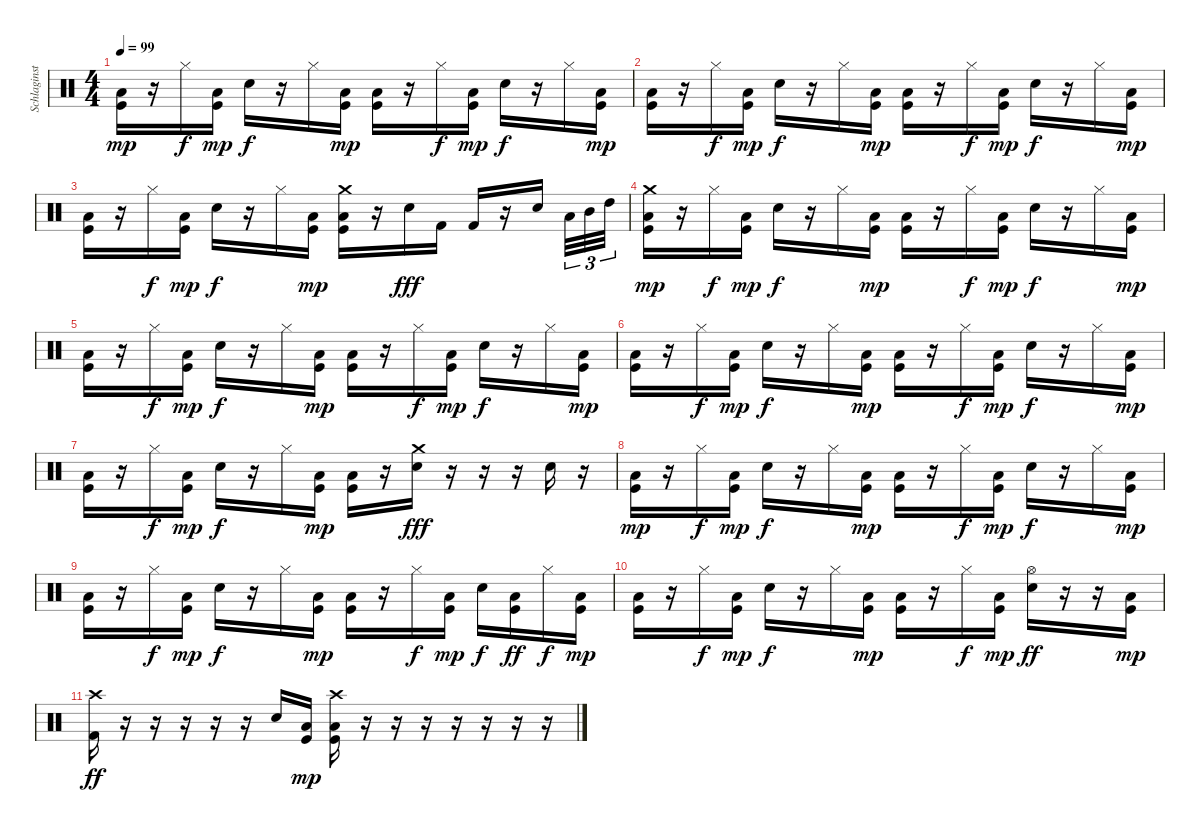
\track ("Schlaginstrumente - Auswahl" "Schlaginst") {instrument percussion}
\staff {score}
\articulation defaults
\ts (4 4)
\tempo 99
\clef neutral
\ks c
("Low Floor Tom (hit)" "Kick (hit)").16{dy mp} r.16 "Hi-Hat (closed)".16{dy f} ("Low Floor Tom (hit)" "Kick (hit)").16{dy mp} "Snare (hit) 2".16{dy f} r.16 "Hi-Hat (closed)".16 ("Low Floor Tom (hit)" "Kick (hit)").16{dy mp} ("Low Floor Tom (hit)" "Kick (hit)").16 r.16 "Hi-Hat (closed)".16{dy f} ("Low Floor Tom (hit)" "Kick (hit)").16{dy mp} "Snare (hit) 2".16{dy f} r.16 "Hi-Hat (closed)".16 ("Low Floor Tom (hit)" "Kick (hit)").16{dy mp} |
("Low Floor Tom (hit)" "Kick (hit)").16 r.16 "Hi-Hat (closed)".16{dy f} ("Low Floor Tom (hit)" "Kick (hit)").16{dy mp} "Snare (hit) 2".16{dy f} r.16 "Hi-Hat (closed)".16 ("Low Floor Tom (hit)" "Kick (hit)").16{dy mp} ("Low Floor Tom (hit)" "Kick (hit)").16 r.16 "Hi-Hat (closed)".16{dy f} ("Low Floor Tom (hit)" "Kick (hit)").16{dy mp} "Snare (hit) 2".16{dy f} r.16 "Hi-Hat (closed)".16 ("Low Floor Tom (hit)" "Kick (hit)").16{dy mp} |
("Low Floor Tom (hit)" "Kick (hit)").16 r.16 "Hi-Hat (closed)".16{dy f} ("Low Floor Tom (hit)" "Kick (hit)").16{dy mp} "Snare (hit) 2".16{dy f} r.16 "Hi-Hat (closed)".16 ("Low Floor Tom (hit)" "Kick (hit)").16{dy mp} ("Crash medium (hit)" "Low Floor Tom (hit)" "Kick (hit)").16 r.16 "Snare (hit) 2".16{dy fff} "Kick (hit) 2".16 "Kick (hit) 2".16 r.16 "Snare (hit) 2".16{beam splitsecondary} "Low Tom (hit)".32{tu (3 2)} "Mid Tom (hit)".32{tu (3 2)} "High Tom (hit)".32{tu (3 2)} |
("Crash medium (hit)" "Low Floor Tom (hit)" "Kick (hit)").16{dy mp} r.16 "Hi-Hat (closed)".16{dy f} ("Low Floor Tom (hit)" "Kick (hit)").16{dy mp} "Snare (hit) 2".16{dy f} r.16 "Hi-Hat (closed)".16 ("Low Floor Tom (hit)" "Kick (hit)").16{dy mp} ("Low Floor Tom (hit)" "Kick (hit)").16 r.16 "Hi-Hat (closed)".16{dy f} ("Low Floor Tom (hit)" "Kick (hit)").16{dy mp} "Snare (hit) 2".16{dy f} r.16 "Hi-Hat (closed)".16 ("Low Floor Tom (hit)" "Kick (hit)").16{dy mp} |
("Low Floor Tom (hit)" "Kick (hit)").16 r.16 "Hi-Hat (closed)".16{dy f} ("Low Floor Tom (hit)" "Kick (hit)").16{dy mp} "Snare (hit) 2".16{dy f} r.16 "Hi-Hat (closed)".16 ("Low Floor Tom (hit)" "Kick (hit)").16{dy mp} ("Low Floor Tom (hit)" "Kick (hit)").16 r.16 "Hi-Hat (closed)".16{dy f} ("Low Floor Tom (hit)" "Kick (hit)").16{dy mp} "Snare (hit) 2".16{dy f} r.16 "Hi-Hat (closed)".16 ("Low Floor Tom (hit)" "Kick (hit)").16{dy mp} |
("Low Floor Tom (hit)" "Kick (hit)").16 r.16 "Hi-Hat (closed)".16{dy f} ("Low Floor Tom (hit)" "Kick (hit)").16{dy mp} "Snare (hit) 2".16{dy f} r.16 "Hi-Hat (closed)".16 ("Low Floor Tom (hit)" "Kick (hit)").16{dy mp} ("Low Floor Tom (hit)" "Kick (hit)").16 r.16 "Hi-Hat (closed)".16{dy f} ("Low Floor Tom (hit)" "Kick (hit)").16{dy mp} "Snare (hit) 2".16{dy f} r.16 "Hi-Hat (closed)".16 ("Low Floor Tom (hit)" "Kick (hit)").16{dy mp} |
("Low Floor Tom (hit)" "Kick (hit)").16 r.16 "Hi-Hat (closed)".16{dy f} ("Low Floor Tom (hit)" "Kick (hit)").16{dy mp} "Snare (hit) 2".16{dy f} r.16 "Hi-Hat (closed)".16 ("Low Floor Tom (hit)" "Kick (hit)").16{dy mp} ("Low Floor Tom (hit)" "Kick (hit)").16 r.16 ("Crash medium (hit)" "Snare (hit) 2").16{dy fff} r.16 r.16 r.16 "Snare (hit) 2".16 r.16 |
("Low Floor Tom (hit)" "Kick (hit)").16{dy mp} r.16 "Hi-Hat (closed)".16{dy f} ("Low Floor Tom (hit)" "Kick (hit)").16{dy mp} "Snare (hit) 2".16{dy f} r.16 "Hi-Hat (closed)".16 ("Low Floor Tom (hit)" "Kick (hit)").16{dy mp} ("Low Floor Tom (hit)" "Kick (hit)").16 r.16 "Hi-Hat (closed)".16{dy f} ("Low Floor Tom (hit)" "Kick (hit)").16{dy mp} "Snare (hit) 2".16{dy f} r.16 "Hi-Hat (closed)".16 ("Low Floor Tom (hit)" "Kick (hit)").16{dy mp} |
("Low Floor Tom (hit)" "Kick (hit)").16 r.16 "Hi-Hat (closed)".16{dy f} ("Low Floor Tom (hit)" "Kick (hit)").16{dy mp} "Snare (hit) 2".16{dy f} r.16 "Hi-Hat (closed)".16 ("Low Floor Tom (hit)" "Kick (hit)").16{dy mp} ("Low Floor Tom (hit)" "Kick (hit)").16 r.16 "Hi-Hat (closed)".16{dy f} ("Low Floor Tom (hit)" "Kick (hit)").16{dy mp} "Snare (hit) 2".16{dy f} ("Low Floor Tom (hit)" "Kick (hit)").16{dy ff} "Hi-Hat (closed)".16{dy f} ("Low Floor Tom (hit)" "Kick (hit)").16{dy mp} |
("Low Floor Tom (hit)" "Kick (hit)").16 r.16 "Hi-Hat (closed)".16{dy f} ("Low Floor Tom (hit)" "Kick (hit)").16{dy mp} "Snare (hit) 2".16{dy f} r.16 "Hi-Hat (closed)".16 ("Low Floor Tom (hit)" "Kick (hit)").16{dy mp} ("Low Floor Tom (hit)" "Kick (hit)").16 r.16 "Hi-Hat (closed)".16{dy f} ("Low Floor Tom (hit)" "Kick (hit)").16{dy mp} ("Snare (hit) 2" "Hi-Hat (open)").16{dy ff} r.16 r.16 ("Low Floor Tom (hit)" "Kick (hit)").16{dy mp} |
("Crash high (hit)" "Kick (hit) 2").16{dy ff} r.16 r.16 r.16 r.16 r.16 "Snare (hit) 2".16 ("Low Floor Tom (hit)" "Kick (hit)").16{dy mp} ("Crash high (hit)" "Low Floor Tom (hit)" "Kick (hit)").16 r.16 r.16 r.16 r.16 r.16 r.16 r.16
